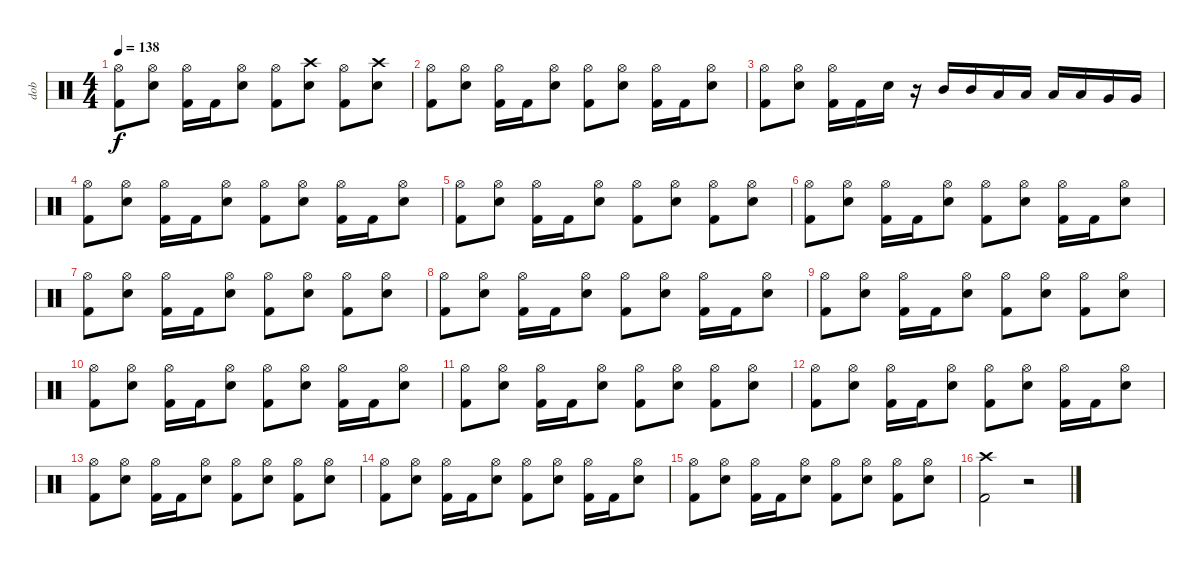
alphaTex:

\track ("dob" "dob") {instrument percussion}
\staff {score}
\articulation defaults
\ts (4 4)
\tempo 138
\clef neutral
\ks c
("Hi-Hat (open)" "Kick (hit) 2").8{dy f} ("Hi-Hat (open)" "Electric Snare (hit)").8 ("Hi-Hat (open)" "Kick (hit) 2").16 "Kick (hit) 2".16 ("Hi-Hat (open)" "Electric Snare (hit)").8 ("Hi-Hat (open)" "Kick (hit) 2").8 ("Crash high (hit)" "Electric Snare (hit)").8 ("Hi-Hat (open)" "Kick (hit) 2").8 ("Crash high (hit)" "Electric Snare (hit)").8 |
("Hi-Hat (open)" "Kick (hit) 2").8 ("Hi-Hat (open)" "Electric Snare (hit)").8 ("Hi-Hat (open)" "Kick (hit) 2").16 "Kick (hit) 2".16 ("Hi-Hat (open)" "Electric Snare (hit)").8 ("Hi-Hat (open)" "Kick (hit) 2").8 ("Hi-Hat (open)" "Electric Snare (hit)").8 ("Hi-Hat (open)" "Kick (hit) 2").16 "Kick (hit) 2".16 ("Hi-Hat (open)" "Electric Snare (hit)").8 |
("Hi-Hat (open)" "Kick (hit) 2").8 ("Hi-Hat (open)" "Electric Snare (hit)").8 ("Hi-Hat (open)" "Kick (hit) 2").16 "Kick (hit) 2".16 "Electric Snare (hit)".16 r.16 "Mid Tom (hit)".16 "Mid Tom (hit)".16 "Low Tom (hit)".16 "Low Tom (hit)".16 "Low Tom (hit)".16 "Low Tom (hit)".16 "Very Low Tom (hit)".16 "Very Low Tom (hit)".16 |
("Hi-Hat (open)" "Kick (hit) 2").8 ("Hi-Hat (open)" "Electric Snare (hit)").8 ("Hi-Hat (open)" "Kick (hit) 2").16 "Kick (hit) 2".16 ("Hi-Hat (open)" "Electric Snare (hit)").8 ("Hi-Hat (open)" "Kick (hit) 2").8 ("Hi-Hat (open)" "Electric Snare (hit)").8 ("Hi-Hat (open)" "Kick (hit) 2").16 "Kick (hit) 2".16 ("Hi-Hat (open)" "Electric Snare (hit)").8 |
("Hi-Hat (open)" "Kick (hit) 2").8 ("Hi-Hat (open)" "Electric Snare (hit)").8 ("Hi-Hat (open)" "Kick (hit) 2").16 "Kick (hit) 2".16 ("Hi-Hat (open)" "Electric Snare (hit)").8 ("Hi-Hat (open)" "Kick (hit) 2").8 ("Hi-Hat (open)" "Electric Snare (hit)").8 ("Hi-Hat (open)" "Kick (hit) 2").8 ("Hi-Hat (open)" "Electric Snare (hit)").8 |
("Hi-Hat (open)" "Kick (hit) 2").8 ("Hi-Hat (open)" "Electric Snare (hit)").8 ("Hi-Hat (open)" "Kick (hit) 2").16 "Kick (hit) 2".16 ("Hi-Hat (open)" "Electric Snare (hit)").8 ("Hi-Hat (open)" "Kick (hit) 2").8 ("Hi-Hat (open)" "Electric Snare (hit)").8 ("Hi-Hat (open)" "Kick (hit) 2").16 "Kick (hit) 2".16 ("Hi-Hat (open)" "Electric Snare (hit)").8 |
("Hi-Hat (open)" "Kick (hit) 2").8 ("Hi-Hat (open)" "Electric Snare (hit)").8 ("Hi-Hat (open)" "Kick (hit) 2").16 "Kick (hit) 2".16 ("Hi-Hat (open)" "Electric Snare (hit)").8 ("Hi-Hat (open)" "Kick (hit) 2").8 ("Hi-Hat (open)" "Electric Snare (hit)").8 ("Hi-Hat (open)" "Kick (hit) 2").8 ("Hi-Hat (open)" "Electric Snare (hit)").8 |
("Hi-Hat (open)" "Kick (hit) 2").8 ("Hi-Hat (open)" "Electric Snare (hit)").8 ("Hi-Hat (open)" "Kick (hit) 2").16 "Kick (hit) 2".16 ("Hi-Hat (open)" "Electric Snare (hit)").8 ("Hi-Hat (open)" "Kick (hit) 2").8 ("Hi-Hat (open)" "Electric Snare (hit)").8 ("Hi-Hat (open)" "Kick (hit) 2").16 "Kick (hit) 2".16 ("Hi-Hat (open)" "Electric Snare (hit)").8 |
("Hi-Hat (open)" "Kick (hit) 2").8 ("Hi-Hat (open)" "Electric Snare (hit)").8 ("Hi-Hat (open)" "Kick (hit) 2").16 "Kick (hit) 2".16 ("Hi-Hat (open)" "Electric Snare (hit)").8 ("Hi-Hat (open)" "Kick (hit) 2").8 ("Hi-Hat (open)" "Electric Snare (hit)").8 ("Hi-Hat (open)" "Kick (hit) 2").8 ("Hi-Hat (open)" "Electric Snare (hit)").8 |
("Hi-Hat (open)" "Kick (hit) 2").8 ("Hi-Hat (open)" "Electric Snare (hit)").8 ("Hi-Hat (open)" "Kick (hit) 2").16 "Kick (hit) 2".16 ("Hi-Hat (open)" "Electric Snare (hit)").8 ("Hi-Hat (open)" "Kick (hit) 2").8 ("Hi-Hat (open)" "Electric Snare (hit)").8 ("Hi-Hat (open)" "Kick (hit) 2").16 "Kick (hit) 2".16 ("Hi-Hat (open)" "Electric Snare (hit)").8 |
("Hi-Hat (open)" "Kick (hit) 2").8 ("Hi-Hat (open)" "Electric Snare (hit)").8 ("Hi-Hat (open)" "Kick (hit) 2").16 "Kick (hit) 2".16 ("Hi-Hat (open)" "Electric Snare (hit)").8 ("Hi-Hat (open)" "Kick (hit) 2").8 ("Hi-Hat (open)" "Electric Snare (hit)").8 ("Hi-Hat (open)" "Kick (hit) 2").8 ("Hi-Hat (open)" "Electric Snare (hit)").8 |
("Hi-Hat (open)" "Kick (hit) 2").8 ("Hi-Hat (open)" "Electric Snare (hit)").8 ("Hi-Hat (open)" "Kick (hit) 2").16 "Kick (hit) 2".16 ("Hi-Hat (open)" "Electric Snare (hit)").8 ("Hi-Hat (open)" "Kick (hit) 2").8 ("Hi-Hat (open)" "Electric Snare (hit)").8 ("Hi-Hat (open)" "Kick (hit) 2").16 "Kick (hit) 2".16 ("Hi-Hat (open)" "Electric Snare (hit)").8 |
("Hi-Hat (open)" "Kick (hit) 2").8 ("Hi-Hat (open)" "Electric Snare (hit)").8 ("Hi-Hat (open)" "Kick (hit) 2").16 "Kick (hit) 2".16 ("Hi-Hat (open)" "Electric Snare (hit)").8 ("Hi-Hat (open)" "Kick (hit) 2").8 ("Hi-Hat (open)" "Electric Snare (hit)").8 ("Hi-Hat (open)" "Kick (hit) 2").8 ("Hi-Hat (open)" "Electric Snare (hit)").8 |
("Hi-Hat (open)" "Kick (hit) 2").8 ("Hi-Hat (open)" "Electric Snare (hit)").8 ("Hi-Hat (open)" "Kick (hit) 2").16 "Kick (hit) 2".16 ("Hi-Hat (open)" "Electric Snare (hit)").8 ("Hi-Hat (open)" "Kick (hit) 2").8 ("Hi-Hat (open)" "Electric Snare (hit)").8 ("Hi-Hat (open)" "Kick (hit) 2").16 "Kick (hit) 2".16 ("Hi-Hat (open)" "Electric Snare (hit)").8 |
("Hi-Hat (open)" "Kick (hit) 2").8 ("Hi-Hat (open)" "Electric Snare (hit)").8 ("Hi-Hat (open)" "Kick (hit) 2").16 "Kick (hit) 2".16 ("Hi-Hat (open)" "Electric Snare (hit)").8 ("Hi-Hat (open)" "Kick (hit) 2").8 ("Hi-Hat (open)" "Electric Snare (hit)").8 ("Hi-Hat (open)" "Kick (hit) 2").8 ("Hi-Hat (open)" "Electric Snare (hit)").8 |
("Crash high (hit)" "Kick (hit) 2").2 r.2
